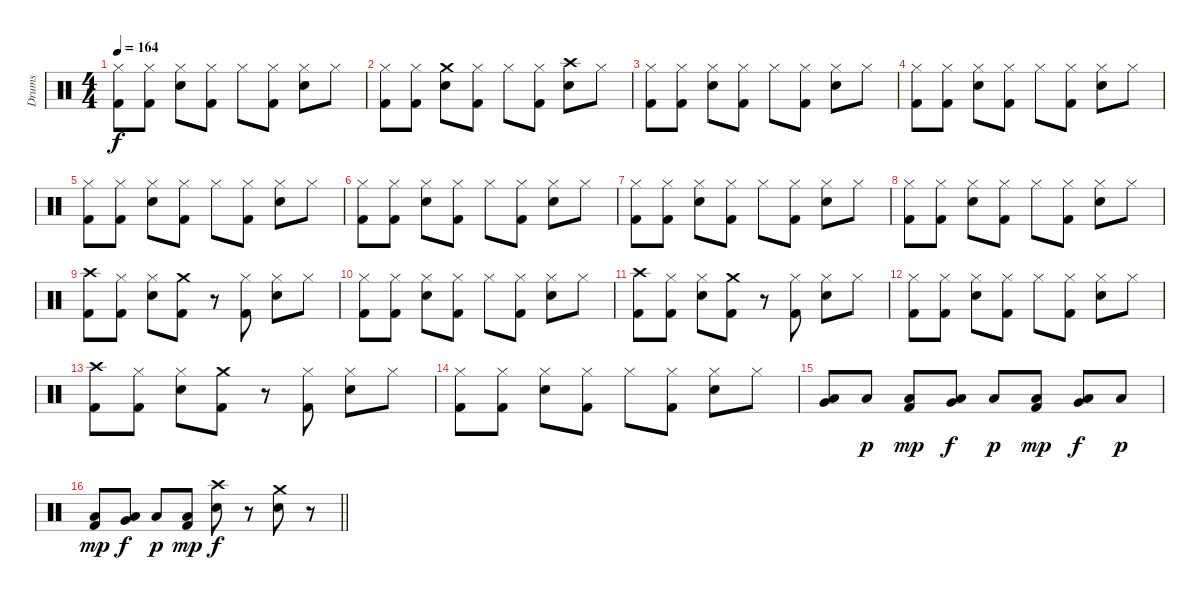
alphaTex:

\track ("Drums" "Drums") {instrument percussion}
\staff {score}
\articulation defaults
\ts (4 4)
\tempo 164
\clef neutral
\ks c
("Hi-Hat (closed)" "Kick (hit) 2").8{dy f} ("Hi-Hat (closed)" "Kick (hit) 2").8 ("Hi-Hat (closed)" "Snare (hit) 2").8 ("Hi-Hat (closed)" "Kick (hit) 2").8 "Hi-Hat (closed)".8 ("Hi-Hat (closed)" "Kick (hit) 2").8 ("Hi-Hat (closed)" "Snare (hit) 2").8 "Hi-Hat (closed)".8 |
("Hi-Hat (closed)" "Kick (hit) 2").8 ("Hi-Hat (closed)" "Kick (hit) 2").8 ("Crash medium (hit)" "Snare (hit) 2").8 ("Hi-Hat (closed)" "Kick (hit) 2").8 "Hi-Hat (closed)".8 ("Hi-Hat (closed)" "Kick (hit) 2").8 ("Crash high (hit)" "Snare (hit) 2").8 "Hi-Hat (closed)".8 |
("Hi-Hat (closed)" "Kick (hit) 2").8 ("Hi-Hat (closed)" "Kick (hit) 2").8 ("Hi-Hat (closed)" "Snare (hit) 2").8 ("Hi-Hat (closed)" "Kick (hit) 2").8 "Hi-Hat (closed)".8 ("Hi-Hat (closed)" "Kick (hit) 2").8 ("Hi-Hat (closed)" "Snare (hit) 2").8 "Hi-Hat (closed)".8 |
("Hi-Hat (closed)" "Kick (hit) 2").8 ("Hi-Hat (closed)" "Kick (hit) 2").8 ("Hi-Hat (closed)" "Snare (hit) 2").8 ("Hi-Hat (closed)" "Kick (hit) 2").8 "Hi-Hat (closed)".8 ("Hi-Hat (closed)" "Kick (hit) 2").8 ("Hi-Hat (closed)" "Snare (hit) 2").8 "Hi-Hat (closed)".8 |
("Hi-Hat (closed)" "Kick (hit) 2").8 ("Hi-Hat (closed)" "Kick (hit) 2").8 ("Hi-Hat (closed)" "Snare (hit) 2").8 ("Hi-Hat (closed)" "Kick (hit) 2").8 "Hi-Hat (closed)".8 ("Hi-Hat (closed)" "Kick (hit) 2").8 ("Hi-Hat (closed)" "Snare (hit) 2").8 "Hi-Hat (closed)".8 |
("Hi-Hat (closed)" "Kick (hit) 2").8 ("Hi-Hat (closed)" "Kick (hit) 2").8 ("Hi-Hat (closed)" "Snare (hit) 2").8 ("Hi-Hat (closed)" "Kick (hit) 2").8 "Hi-Hat (closed)".8 ("Hi-Hat (closed)" "Kick (hit) 2").8 ("Hi-Hat (closed)" "Snare (hit) 2").8 "Hi-Hat (closed)".8 |
("Hi-Hat (closed)" "Kick (hit) 2").8 ("Hi-Hat (closed)" "Kick (hit) 2").8 ("Hi-Hat (closed)" "Snare (hit) 2").8 ("Hi-Hat (closed)" "Kick (hit) 2").8 "Hi-Hat (closed)".8 ("Hi-Hat (closed)" "Kick (hit) 2").8 ("Hi-Hat (closed)" "Snare (hit) 2").8 "Hi-Hat (closed)".8 |
("Hi-Hat (closed)" "Kick (hit) 2").8 ("Hi-Hat (closed)" "Kick (hit) 2").8 ("Hi-Hat (closed)" "Snare (hit) 2").8 ("Hi-Hat (closed)" "Kick (hit) 2").8 "Hi-Hat (closed)".8 ("Hi-Hat (closed)" "Kick (hit) 2").8 ("Hi-Hat (closed)" "Snare (hit) 2").8 "Hi-Hat (closed)".8 |
("Crash high (hit)" "Kick (hit) 2").8 ("Hi-Hat (closed)" "Kick (hit) 2").8 ("Hi-Hat (closed)" "Snare (hit) 2").8 ("Crash medium (hit)" "Kick (hit) 2").8 r.8 ("Hi-Hat (closed)" "Kick (hit) 2").8 ("Hi-Hat (closed)" "Snare (hit) 2").8 "Hi-Hat (closed)".8 |
("Hi-Hat (closed)" "Kick (hit) 2").8 ("Hi-Hat (closed)" "Kick (hit) 2").8 ("Hi-Hat (closed)" "Snare (hit) 2").8 ("Hi-Hat (closed)" "Kick (hit) 2").8 "Hi-Hat (closed)".8 ("Hi-Hat (closed)" "Kick (hit) 2").8 ("Hi-Hat (closed)" "Snare (hit) 2").8 "Hi-Hat (closed)".8 |
("Crash high (hit)" "Kick (hit) 2").8 ("Hi-Hat (closed)" "Kick (hit) 2").8 ("Hi-Hat (closed)" "Snare (hit) 2").8 ("Crash medium (hit)" "Kick (hit) 2").8 r.8 ("Hi-Hat (closed)" "Kick (hit) 2").8 ("Hi-Hat (closed)" "Snare (hit) 2").8 "Hi-Hat (closed)".8 |
("Hi-Hat (closed)" "Kick (hit) 2").8 ("Hi-Hat (closed)" "Kick (hit) 2").8 ("Hi-Hat (closed)" "Snare (hit) 2").8 ("Hi-Hat (closed)" "Kick (hit) 2").8 "Hi-Hat (closed)".8 ("Hi-Hat (closed)" "Kick (hit) 2").8 ("Hi-Hat (closed)" "Snare (hit) 2").8 "Hi-Hat (closed)".8 |
("Crash high (hit)" "Kick (hit) 2").8 ("Hi-Hat (closed)" "Kick (hit) 2").8 ("Hi-Hat (closed)" "Snare (hit) 2").8 ("Crash medium (hit)" "Kick (hit) 2").8 r.8 ("Hi-Hat (closed)" "Kick (hit) 2").8 ("Hi-Hat (closed)" "Snare (hit) 2").8 "Hi-Hat (closed)".8 |
("Hi-Hat (closed)" "Kick (hit) 2").8 ("Hi-Hat (closed)" "Kick (hit) 2").8 ("Hi-Hat (closed)" "Snare (hit) 2").8 ("Hi-Hat (closed)" "Kick (hit) 2").8 "Hi-Hat (closed)".8 ("Hi-Hat (closed)" "Kick (hit) 2").8 ("Hi-Hat (closed)" "Snare (hit) 2").8 "Hi-Hat (closed)".8 |
("Low Tom (hit)" "Very Low Tom (hit)").8 "Low Floor Tom (hit)".8{dy p} ("Low Floor Tom (hit)" "Kick (hit) 2").8{dy mp} ("Low Tom (hit)" "Very Low Tom (hit)").8{dy f} "Low Floor Tom (hit)".8{dy p} ("Low Floor Tom (hit)" "Kick (hit) 2").8{dy mp} ("Low Tom (hit)" "Very Low Tom (hit)").8{dy f} "Low Floor Tom (hit)".8{dy p} |
\barLineRight lightlight
("Low Floor Tom (hit)" "Kick (hit) 2").8{dy mp} ("Low Tom (hit)" "Very Low Tom (hit)").8{dy f} "Low Floor Tom (hit)".8{dy p} ("Low Floor Tom (hit)" "Kick (hit) 2").8{dy mp} ("Crash high (hit)" "Snare (hit) 2").8{dy f} r.8 ("Crash medium (hit)" "Snare (hit) 2").8 r.8
